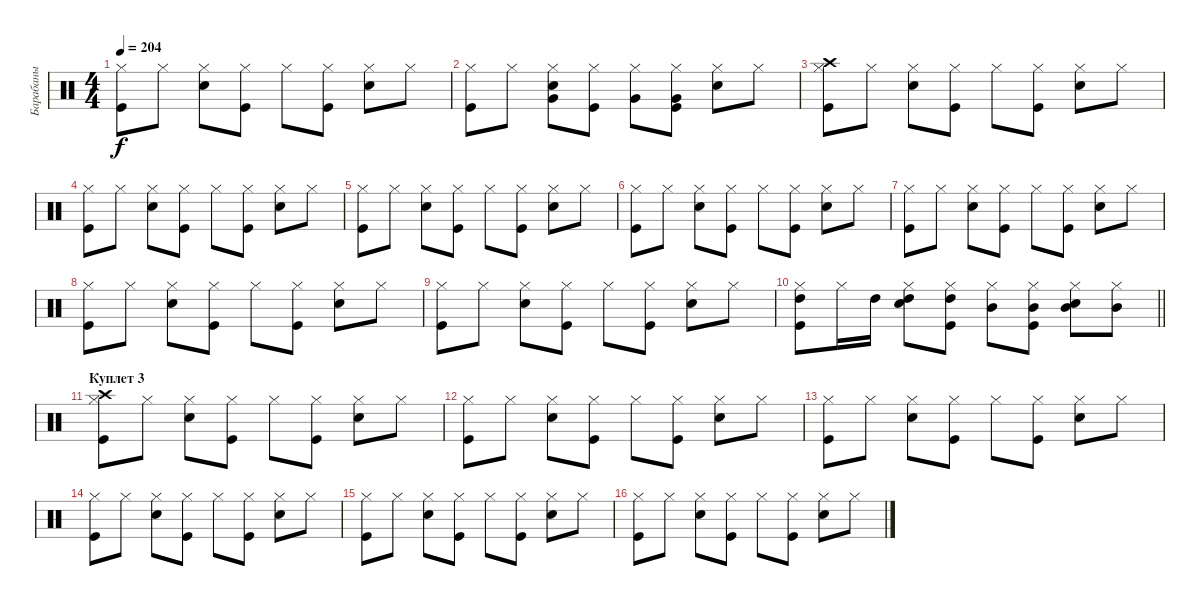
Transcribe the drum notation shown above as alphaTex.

\track ("Барабаны" "Барабаны") {instrument percussion}
\staff {score}
\articulation defaults
\ts (4 4)
\tempo 204
\clef neutral
\ks c
("Kick (hit)" "Hi-Hat (closed)").8{dy f} "Hi-Hat (closed)".8 ("Snare (hit) 2" "Hi-Hat (closed)").8 ("Kick (hit)" "Hi-Hat (closed)").8 "Hi-Hat (closed)".8 ("Kick (hit)" "Hi-Hat (closed)").8 ("Snare (hit) 2" "Hi-Hat (closed)").8 "Hi-Hat (closed)".8 |
("Kick (hit)" "Hi-Hat (closed)").8 "Hi-Hat (closed)".8 ("Snare (hit) 2" "Hi-Hat (closed)" "Very Low Tom (hit)").8 ("Kick (hit)" "Hi-Hat (closed)").8 ("Hi-Hat (closed)" "Very Low Tom (hit)").8 ("Kick (hit)" "Hi-Hat (closed)" "Very Low Tom (hit)").8 ("Snare (hit) 2" "Hi-Hat (closed)").8 "Hi-Hat (closed)".8 |
("Kick (hit)" "Hi-Hat (closed)" "Crash high (hit)").8 "Hi-Hat (closed)".8 ("Snare (hit) 2" "Hi-Hat (closed)").8 ("Kick (hit)" "Hi-Hat (closed)").8 "Hi-Hat (closed)".8 ("Kick (hit)" "Hi-Hat (closed)").8 ("Snare (hit) 2" "Hi-Hat (closed)").8 "Hi-Hat (closed)".8 |
("Kick (hit)" "Hi-Hat (closed)").8 "Hi-Hat (closed)".8 ("Snare (hit) 2" "Hi-Hat (closed)").8 ("Kick (hit)" "Hi-Hat (closed)").8 "Hi-Hat (closed)".8 ("Kick (hit)" "Hi-Hat (closed)").8 ("Snare (hit) 2" "Hi-Hat (closed)").8 "Hi-Hat (closed)".8 |
("Kick (hit)" "Hi-Hat (closed)").8 "Hi-Hat (closed)".8 ("Snare (hit) 2" "Hi-Hat (closed)").8 ("Kick (hit)" "Hi-Hat (closed)").8 "Hi-Hat (closed)".8 ("Kick (hit)" "Hi-Hat (closed)").8 ("Snare (hit) 2" "Hi-Hat (closed)").8 "Hi-Hat (closed)".8 |
("Kick (hit)" "Hi-Hat (closed)").8 "Hi-Hat (closed)".8 ("Snare (hit) 2" "Hi-Hat (closed)").8 ("Kick (hit)" "Hi-Hat (closed)").8 "Hi-Hat (closed)".8 ("Kick (hit)" "Hi-Hat (closed)").8 ("Snare (hit) 2" "Hi-Hat (closed)").8 "Hi-Hat (closed)".8 |
("Kick (hit)" "Hi-Hat (closed)").8 "Hi-Hat (closed)".8 ("Snare (hit) 2" "Hi-Hat (closed)").8 ("Kick (hit)" "Hi-Hat (closed)").8 "Hi-Hat (closed)".8 ("Kick (hit)" "Hi-Hat (closed)").8 ("Snare (hit) 2" "Hi-Hat (closed)").8 "Hi-Hat (closed)".8 |
("Kick (hit)" "Hi-Hat (closed)").8 "Hi-Hat (closed)".8 ("Snare (hit) 2" "Hi-Hat (closed)").8 ("Kick (hit)" "Hi-Hat (closed)").8 "Hi-Hat (closed)".8 ("Kick (hit)" "Hi-Hat (closed)").8 ("Snare (hit) 2" "Hi-Hat (closed)").8 "Hi-Hat (closed)".8 |
("Kick (hit)" "Hi-Hat (closed)").8 "Hi-Hat (closed)".8 ("Snare (hit) 2" "Hi-Hat (closed)").8 ("Kick (hit)" "Hi-Hat (closed)").8 "Hi-Hat (closed)".8 ("Kick (hit)" "Hi-Hat (closed)").8 ("Snare (hit) 2" "Hi-Hat (closed)").8 "Hi-Hat (closed)".8 |
\barLineRight lightlight
("Kick (hit)" "Hi-Hat (closed)" "High Tom (hit)").8 "Hi-Hat (closed)".16 "High Tom (hit)".16 ("Snare (hit) 2" "Hi-Hat (closed)" "High Tom (hit)").8 ("Kick (hit)" "Hi-Hat (closed)" "High Tom (hit)").8 ("Hi-Hat (closed)" "Mid Tom (hit)").8 ("Kick (hit)" "Hi-Hat (closed)" "Mid Tom (hit)").8 ("Snare (hit) 2" "Hi-Hat (closed)" "Mid Tom (hit)").8 ("Hi-Hat (closed)" "Mid Tom (hit)").8 |
\section ("" "Куплет 3")
("Kick (hit)" "Hi-Hat (closed)" "Crash high (hit)").8 "Hi-Hat (closed)".8 ("Snare (hit) 2" "Hi-Hat (closed)").8 ("Kick (hit)" "Hi-Hat (closed)").8 "Hi-Hat (closed)".8 ("Kick (hit)" "Hi-Hat (closed)").8 ("Snare (hit) 2" "Hi-Hat (closed)").8 "Hi-Hat (closed)".8 |
("Kick (hit)" "Hi-Hat (closed)").8 "Hi-Hat (closed)".8 ("Snare (hit) 2" "Hi-Hat (closed)").8 ("Kick (hit)" "Hi-Hat (closed)").8 "Hi-Hat (closed)".8 ("Kick (hit)" "Hi-Hat (closed)").8 ("Snare (hit) 2" "Hi-Hat (closed)").8 "Hi-Hat (closed)".8 |
("Kick (hit)" "Hi-Hat (closed)").8 "Hi-Hat (closed)".8 ("Snare (hit) 2" "Hi-Hat (closed)").8 ("Kick (hit)" "Hi-Hat (closed)").8 "Hi-Hat (closed)".8 ("Kick (hit)" "Hi-Hat (closed)").8 ("Snare (hit) 2" "Hi-Hat (closed)").8 "Hi-Hat (closed)".8 |
("Kick (hit)" "Hi-Hat (closed)").8 "Hi-Hat (closed)".8 ("Snare (hit) 2" "Hi-Hat (closed)").8 ("Kick (hit)" "Hi-Hat (closed)").8 "Hi-Hat (closed)".8 ("Kick (hit)" "Hi-Hat (closed)").8 ("Snare (hit) 2" "Hi-Hat (closed)").8 "Hi-Hat (closed)".8 |
("Kick (hit)" "Hi-Hat (closed)").8 "Hi-Hat (closed)".8 ("Snare (hit) 2" "Hi-Hat (closed)").8 ("Kick (hit)" "Hi-Hat (closed)").8 "Hi-Hat (closed)".8 ("Kick (hit)" "Hi-Hat (closed)").8 ("Snare (hit) 2" "Hi-Hat (closed)").8 "Hi-Hat (closed)".8 |
("Kick (hit)" "Hi-Hat (closed)").8 "Hi-Hat (closed)".8 ("Snare (hit) 2" "Hi-Hat (closed)").8 ("Kick (hit)" "Hi-Hat (closed)").8 "Hi-Hat (closed)".8 ("Kick (hit)" "Hi-Hat (closed)").8 ("Snare (hit) 2" "Hi-Hat (closed)").8 "Hi-Hat (closed)".8
